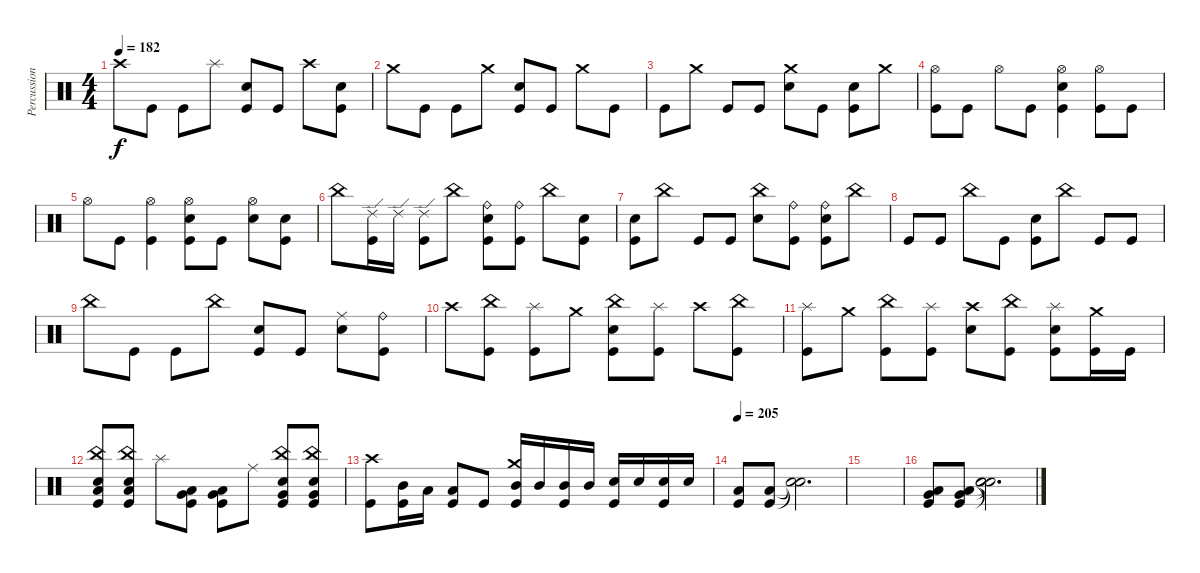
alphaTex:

\track ("Percussion" "Percussion") {instrument percussion}
\staff {score}
\articulation defaults
\ts (4 4)
\tempo 182
\clef neutral
\ks c "Crash high (hit)".8{dy f} "Kick (hit)".8 "Kick (hit)".8 "Splash (hit)".8
("Snare (hit) 2" "Kick (hit)").8 "Kick (hit)".8 "Crash high (hit)".8 ("Snare (hit) 2" "Kick (hit)").8 |
"Crash medium (hit)".8 "Kick (hit)".8 "Kick (hit)".8 "Crash medium (hit)".8 ("Snare (hit) 2" "Kick (hit)").8 "Kick (hit)".8 "Crash medium (hit)".8 "Kick (hit)".8 |
"Kick (hit)".8 "Crash medium (hit)".8 "Kick (hit)".8 "Kick (hit)".8 ("Crash medium (hit)" "Snare (hit) 2").8 "Kick (hit)".8 ("Snare (hit) 2" "Kick (hit)").8 "Crash medium (hit)".8 |
("Hi-Hat (open)" "Kick (hit)").8 "Kick (hit)".8 "Hi-Hat (open)".8 "Kick (hit)".8 ("Hi-Hat (open)" "Snare (hit) 2" "Kick (hit)").4 ("Hi-Hat (open)" "Kick (hit)").8 "Kick (hit)".8 |
"Hi-Hat (open)".8 "Kick (hit)".8 ("Hi-Hat (open)" "Kick (hit)").4 ("Hi-Hat (open)" "Snare (hit) 2" "Kick (hit)").8 "Kick (hit)".8 ("Hi-Hat (open)" "Snare (hit) 2").8 ("Snare (hit) 2" "Kick (hit)").8 |
"China (hit)".8 ("Ride (edge) 2" "Kick (hit)").16 "Ride (edge) 2".16 ("Ride (edge) 2" "Kick (hit)").8 "China (hit)".8 ("Ride (bell)" "Snare (hit) 2" "Kick (hit)").8 ("Ride (bell)" "Kick (hit)").8 "China (hit)".8 ("Snare (hit) 2" "Kick (hit)").8 |
("Snare (hit) 2" "Kick (hit)").8 "China (hit)".8 "Kick (hit)".8 "Kick (hit)".8 ("China (hit)" "Snare (hit) 2").8 ("Ride (bell)" "Kick (hit)").8 ("Ride (bell)" "Snare (hit) 2" "Kick (hit)").8 "China (hit)".8 |
"Kick (hit)".8 "Kick (hit)".8 "China (hit)".8 "Kick (hit)".8 ("Snare (hit) 2" "Kick (hit)").8 "China (hit)".8 "Kick (hit)".8 "Kick (hit)".8 |
"China (hit)".8 "Kick (hit)".8 "Kick (hit)".8 "China (hit)".8 ("Snare (hit) 2" "Kick (hit)").8 "Kick (hit)".8 ("Ride (middle)" "Snare (hit) 2").8 ("Ride (bell)" "Kick (hit)").8 |
"Crash high (hit)".8 ("China (hit)" "Kick (hit)").8 ("Splash (hit)" "Kick (hit)").8 "Crash medium (hit)".8 ("China (hit)" "Snare (hit) 2" "Kick (hit)").8 ("Splash (hit)" "Kick (hit)").8 "Crash high (hit)".8 ("China (hit)" "Kick (hit)").8 |
("Splash (hit)" "Kick (hit)").8 "Crash medium (hit)".8 ("China (hit)" "Kick (hit)").8 ("Splash (hit)" "Kick (hit)").8 ("Crash high (hit)" "Snare (hit) 2").8 ("China (hit)" "Kick (hit)").8 ("Splash (hit)" "Snare (hit) 2" "Kick (hit)").8 ("Crash medium (hit)" "Kick (hit)").16 "Kick (hit)".16 |
("China (hit)" "Snare (hit) 2" "Low Tom (hit)" "Kick (hit)").8 ("China (hit)" "Snare (hit) 2" "Low Tom (hit)" "Kick (hit)").8 "Splash (hit)".8 ("Very Low Tom (hit)" "Low Tom (hit)" "Kick (hit)").8 ("Very Low Tom (hit)" "Low Tom (hit)" "Kick (hit)").8 "Ride (middle)".8 ("China (hit)" "Snare (hit) 2" "Very Low Tom (hit)" "Kick (hit)").8 ("China (hit)" "Snare (hit) 2" "Very Low Tom (hit)" "Kick (hit)").8 |
("Crash high (hit)" "Kick (hit)").8 ("Mid Tom (hit)" "Kick (hit)").16 "Low Tom (hit)".16 ("Low Tom (hit)" "Kick (hit)").8 "Kick (hit)".8 ("Crash medium (hit)" "Mid Tom (hit)" "Kick (hit)").16 "Mid Tom (hit)".16 ("Mid Tom (hit)" "Kick (hit)").16 "Mid Tom (hit)".16 ("Snare (hit) 2" "Kick (hit)").16 "Snare (hit) 2".16 ("Snare (hit) 2" "Kick (hit)").16 "Snare (hit) 2".16 |
\tempo 205
("Low Floor Tom (hit)" "Kick (hit)").8 ("Low Floor Tom (hit)" "Kick (hit)").8 ("Snare (hit)"{t} "Snare (hit)"{t}).2{d} |
|
("Very Low Tom (hit)" "Low Floor Tom (hit)" "Kick (hit)").8 ("Very Low Tom (hit)" "Low Floor Tom (hit)" "Kick (hit)").8 ("Snare (hit)"{t} "Snare (hit)"{t} "Snare (hit)"{t}).2{d}
